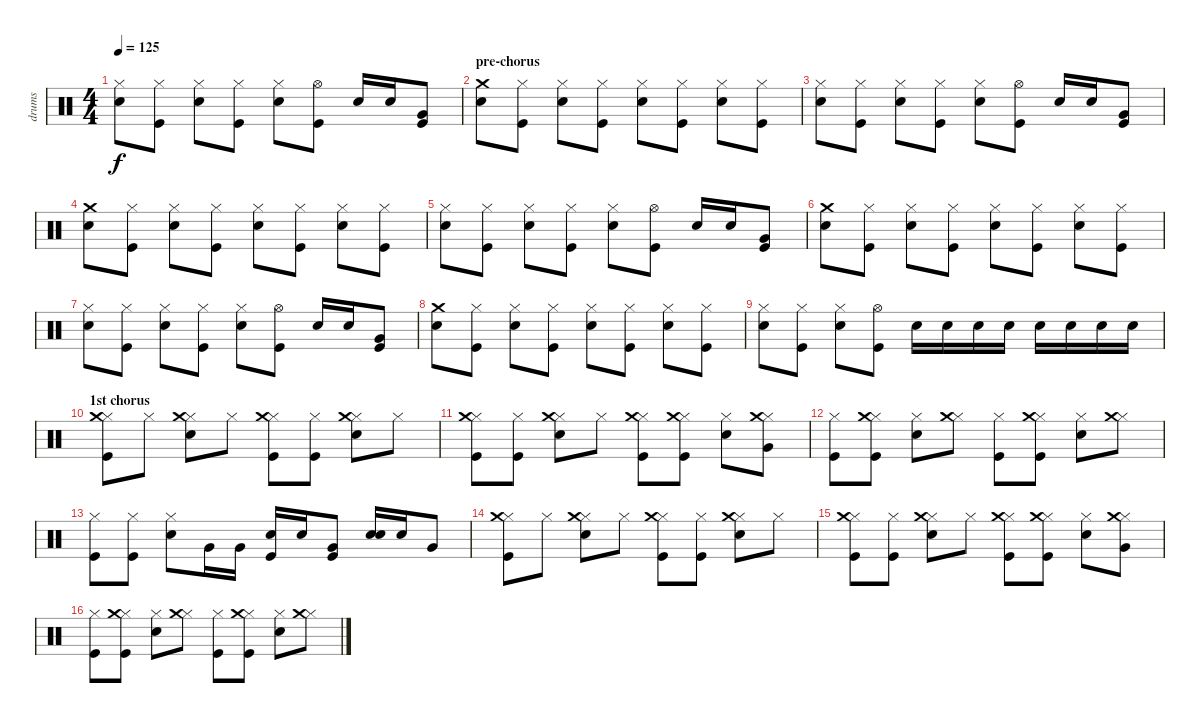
\track ("drums" "drums") {instrument percussion}
\staff {score}
\articulation defaults
\ts (4 4)
\tempo 125
\clef neutral
\ks c
("Hi-Hat (closed)" "Electric Snare (hit)").8{dy f} ("Hi-Hat (closed)" "Kick (hit)").8 ("Hi-Hat (closed)" "Electric Snare (hit)").8 ("Hi-Hat (closed)" "Kick (hit)").8 ("Hi-Hat (closed)" "Electric Snare (hit)").8 ("Hi-Hat (open)" "Kick (hit)").8 "Electric Snare (hit)".16 "Electric Snare (hit)".16 ("Very Low Tom (hit)" "Kick (hit)").8 |
\section ("" "pre-chorus")
("Crash medium (hit)" "Electric Snare (hit)").8 ("Hi-Hat (closed)" "Kick (hit)").8 ("Hi-Hat (closed)" "Electric Snare (hit)").8 ("Hi-Hat (closed)" "Kick (hit)").8 ("Hi-Hat (closed)" "Electric Snare (hit)").8 ("Hi-Hat (closed)" "Kick (hit)").8 ("Hi-Hat (closed)" "Electric Snare (hit)").8 ("Hi-Hat (closed)" "Kick (hit)").8 |
("Hi-Hat (closed)" "Electric Snare (hit)").8 ("Hi-Hat (closed)" "Kick (hit)").8 ("Hi-Hat (closed)" "Electric Snare (hit)").8 ("Hi-Hat (closed)" "Kick (hit)").8 ("Hi-Hat (closed)" "Electric Snare (hit)").8 ("Hi-Hat (open)" "Kick (hit)").8 "Electric Snare (hit)".16 "Electric Snare (hit)".16 ("Very Low Tom (hit)" "Kick (hit)").8 |
("Crash medium (hit)" "Electric Snare (hit)").8 ("Hi-Hat (closed)" "Kick (hit)").8 ("Hi-Hat (closed)" "Electric Snare (hit)").8 ("Hi-Hat (closed)" "Kick (hit)").8 ("Hi-Hat (closed)" "Electric Snare (hit)").8 ("Hi-Hat (closed)" "Kick (hit)").8 ("Hi-Hat (closed)" "Electric Snare (hit)").8 ("Hi-Hat (closed)" "Kick (hit)").8 |
("Hi-Hat (closed)" "Electric Snare (hit)").8 ("Hi-Hat (closed)" "Kick (hit)").8 ("Hi-Hat (closed)" "Electric Snare (hit)").8 ("Hi-Hat (closed)" "Kick (hit)").8 ("Hi-Hat (closed)" "Electric Snare (hit)").8 ("Hi-Hat (open)" "Kick (hit)").8 "Electric Snare (hit)".16 "Electric Snare (hit)".16 ("Very Low Tom (hit)" "Kick (hit)").8 |
("Crash medium (hit)" "Electric Snare (hit)").8 ("Hi-Hat (closed)" "Kick (hit)").8 ("Hi-Hat (closed)" "Electric Snare (hit)").8 ("Hi-Hat (closed)" "Kick (hit)").8 ("Hi-Hat (closed)" "Electric Snare (hit)").8 ("Hi-Hat (closed)" "Kick (hit)").8 ("Hi-Hat (closed)" "Electric Snare (hit)").8 ("Hi-Hat (closed)" "Kick (hit)").8 |
("Hi-Hat (closed)" "Electric Snare (hit)").8 ("Hi-Hat (closed)" "Kick (hit)").8 ("Hi-Hat (closed)" "Electric Snare (hit)").8 ("Hi-Hat (closed)" "Kick (hit)").8 ("Hi-Hat (closed)" "Electric Snare (hit)").8 ("Hi-Hat (open)" "Kick (hit)").8 "Electric Snare (hit)".16 "Electric Snare (hit)".16 ("Very Low Tom (hit)" "Kick (hit)").8 |
("Crash medium (hit)" "Electric Snare (hit)").8 ("Hi-Hat (closed)" "Kick (hit)").8 ("Hi-Hat (closed)" "Electric Snare (hit)").8 ("Hi-Hat (closed)" "Kick (hit)").8 ("Hi-Hat (closed)" "Electric Snare (hit)").8 ("Hi-Hat (closed)" "Kick (hit)").8 ("Hi-Hat (closed)" "Electric Snare (hit)").8 ("Hi-Hat (closed)" "Kick (hit)").8 |
("Hi-Hat (closed)" "Electric Snare (hit)").8 ("Hi-Hat (closed)" "Kick (hit)").8 ("Hi-Hat (closed)" "Electric Snare (hit)").8 ("Hi-Hat (open)" "Kick (hit)").8 "Electric Snare (hit)".16 "Electric Snare (hit)".16 "Electric Snare (hit)".16 "Electric Snare (hit)".16 "Electric Snare (hit)".16 "Electric Snare (hit)".16 "Electric Snare (hit)".16 "Electric Snare (hit)".16 |
\section ("" "1st chorus")
("Hi-Hat (closed)" "Crash medium (hit)" "Kick (hit)").8 "Hi-Hat (closed)".8 ("Hi-Hat (closed)" "Crash medium (hit)" "Electric Snare (hit)").8 "Hi-Hat (closed)".8 ("Hi-Hat (closed)" "Crash medium (hit)" "Kick (hit)").8 ("Hi-Hat (closed)" "Kick (hit)").8 ("Hi-Hat (closed)" "Crash medium (hit)" "Electric Snare (hit)").8 "Hi-Hat (closed)".8 |
("Hi-Hat (closed)" "Crash medium (hit)" "Kick (hit)").8 ("Hi-Hat (closed)" "Kick (hit)").8 ("Hi-Hat (closed)" "Crash medium (hit)" "Electric Snare (hit)").8 "Hi-Hat (closed)".8 ("Hi-Hat (closed)" "Crash medium (hit)" "Kick (hit)").8 ("Hi-Hat (closed)" "Crash medium (hit)" "Kick (hit)").8 ("Hi-Hat (closed)" "Electric Snare (hit)").8 ("Hi-Hat (closed)" "Crash medium (hit)" "Very Low Tom (hit)").8 |
("Hi-Hat (closed)" "Kick (hit)").8 ("Hi-Hat (closed)" "Crash medium (hit)" "Kick (hit)").8 ("Hi-Hat (closed)" "Electric Snare (hit)").8 ("Hi-Hat (closed)" "Crash medium (hit)").8 ("Hi-Hat (closed)" "Kick (hit)").8 ("Hi-Hat (closed)" "Crash medium (hit)" "Kick (hit)").8 ("Hi-Hat (closed)" "Electric Snare (hit)").8 ("Hi-Hat (closed)" "Crash medium (hit)").8 |
("Hi-Hat (closed)" "Kick (hit)").8 ("Hi-Hat (closed)" "Kick (hit)").8 ("Hi-Hat (closed)" "Electric Snare (hit)").8 "Very Low Tom (hit)".16 "Very Low Tom (hit)".16 ("Electric Snare (hit)" "Kick (hit)").16 "Electric Snare (hit)".16 ("Very Low Tom (hit)" "Kick (hit)").8 ("Electric Snare (hit)" "Electric Snare (hit)").16 "Electric Snare (hit)".16 "Very Low Tom (hit)".8 |
("Hi-Hat (closed)" "Crash medium (hit)" "Kick (hit)").8 "Hi-Hat (closed)".8 ("Hi-Hat (closed)" "Crash medium (hit)" "Electric Snare (hit)").8 "Hi-Hat (closed)".8 ("Hi-Hat (closed)" "Crash medium (hit)" "Kick (hit)").8 ("Hi-Hat (closed)" "Kick (hit)").8 ("Hi-Hat (closed)" "Crash medium (hit)" "Electric Snare (hit)").8 "Hi-Hat (closed)".8 |
("Hi-Hat (closed)" "Crash medium (hit)" "Kick (hit)").8 ("Hi-Hat (closed)" "Kick (hit)").8 ("Hi-Hat (closed)" "Crash medium (hit)" "Electric Snare (hit)").8 "Hi-Hat (closed)".8 ("Hi-Hat (closed)" "Crash medium (hit)" "Kick (hit)").8 ("Hi-Hat (closed)" "Crash medium (hit)" "Kick (hit)").8 ("Hi-Hat (closed)" "Electric Snare (hit)").8 ("Hi-Hat (closed)" "Crash medium (hit)" "Very Low Tom (hit)").8 |
("Hi-Hat (closed)" "Kick (hit)").8 ("Hi-Hat (closed)" "Crash medium (hit)" "Kick (hit)").8 ("Hi-Hat (closed)" "Electric Snare (hit)").8 ("Hi-Hat (closed)" "Crash medium (hit)").8 ("Hi-Hat (closed)" "Kick (hit)").8 ("Hi-Hat (closed)" "Crash medium (hit)" "Kick (hit)").8 ("Hi-Hat (closed)" "Electric Snare (hit)").8 ("Hi-Hat (closed)" "Crash medium (hit)").8
